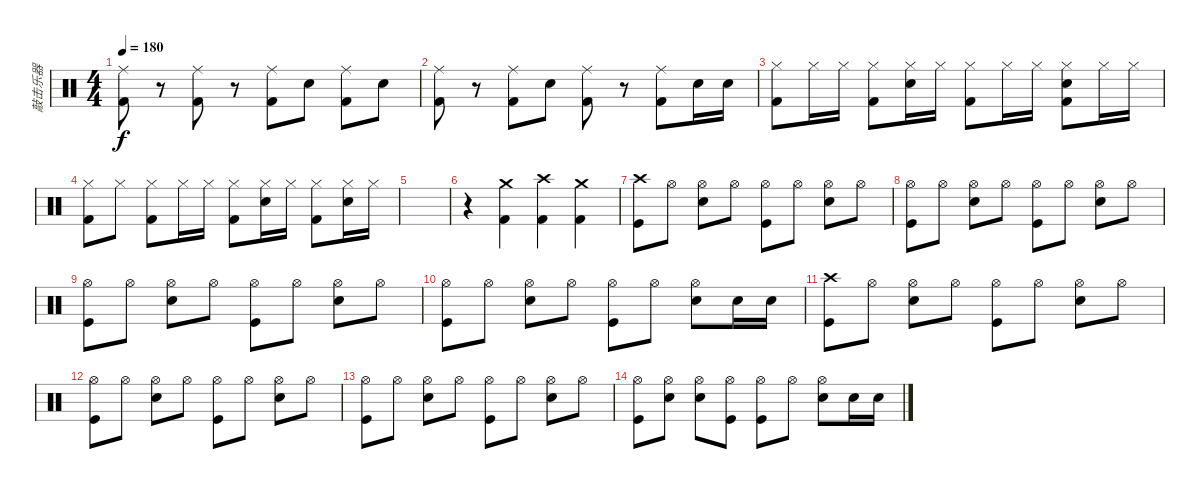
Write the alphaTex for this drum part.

\track ("敲击乐器" "敲击乐器") {instrument percussion}
\staff {score}
\articulation defaults
\ts (4 4)
\tempo 180
\clef neutral
\ks c
("Ride (middle)" "Kick (hit) 2").8{dy f} r.8 ("Ride (middle)" "Kick (hit) 2").8 r.8 ("Ride (middle)" "Kick (hit) 2").8 "Snare (hit) 2".8 ("Ride (middle)" "Kick (hit) 2").8 "Snare (hit) 2".8 |
("Ride (middle)" "Kick (hit) 2").8 r.8 ("Ride (middle)" "Kick (hit) 2").8 "Snare (hit) 2".8 ("Ride (middle)" "Kick (hit) 2").8 r.8 ("Ride (middle)" "Kick (hit) 2").8 "Snare (hit) 2".16 "Snare (hit) 2".16 |
("Hi-Hat (closed)" "Kick (hit) 2").8 "Hi-Hat (closed)".16 "Hi-Hat (closed)".16 ("Hi-Hat (closed)" "Kick (hit) 2").8 ("Hi-Hat (closed)" "Snare (hit) 2").16 "Hi-Hat (closed)".16 ("Hi-Hat (closed)" "Kick (hit) 2").8 "Hi-Hat (closed)".16 "Hi-Hat (closed)".16 ("Hi-Hat (closed)" "Snare (hit) 2" "Kick (hit) 2").8 "Hi-Hat (closed)".16 "Hi-Hat (closed)".16 |
("Hi-Hat (closed)" "Kick (hit) 2").8 "Hi-Hat (closed)".8 ("Hi-Hat (closed)" "Kick (hit) 2").8 "Hi-Hat (closed)".16 "Hi-Hat (closed)".16 ("Hi-Hat (closed)" "Kick (hit) 2").8 ("Hi-Hat (closed)" "Snare (hit) 2").16 "Hi-Hat (closed)".16 ("Hi-Hat (closed)" "Kick (hit) 2").8 ("Hi-Hat (closed)" "Snare (hit) 2").16 "Hi-Hat (closed)".16 |
|
r.4 ("Crash medium (hit)" "Kick (hit) 2").4 ("Crash high (hit)" "Kick (hit) 2").4 ("Crash medium (hit)" "Kick (hit) 2").4 |
("Crash high (hit)" "Kick (hit)").8 "Hi-Hat (open)".8 ("Hi-Hat (open)" "Snare (hit) 2").8 "Hi-Hat (open)".8 ("Hi-Hat (open)" "Kick (hit)").8 "Hi-Hat (open)".8 ("Hi-Hat (open)" "Snare (hit) 2").8 "Hi-Hat (open)".8 |
("Hi-Hat (open)" "Kick (hit)").8 "Hi-Hat (open)".8 ("Hi-Hat (open)" "Snare (hit) 2").8 "Hi-Hat (open)".8 ("Hi-Hat (open)" "Kick (hit)").8 "Hi-Hat (open)".8 ("Hi-Hat (open)" "Snare (hit) 2").8 "Hi-Hat (open)".8 |
("Hi-Hat (open)" "Kick (hit)").8 "Hi-Hat (open)".8 ("Hi-Hat (open)" "Snare (hit) 2").8 "Hi-Hat (open)".8 ("Hi-Hat (open)" "Kick (hit)").8 "Hi-Hat (open)".8 ("Hi-Hat (open)" "Snare (hit) 2").8 "Hi-Hat (open)".8 |
("Hi-Hat (open)" "Kick (hit)").8 "Hi-Hat (open)".8 ("Hi-Hat (open)" "Snare (hit) 2").8 "Hi-Hat (open)".8 ("Hi-Hat (open)" "Kick (hit)").8 "Hi-Hat (open)".8 ("Hi-Hat (open)" "Snare (hit) 2").8 "Snare (hit) 2".16 "Snare (hit) 2".16 |
("Crash high (hit)" "Kick (hit)").8 "Hi-Hat (open)".8 ("Hi-Hat (open)" "Snare (hit) 2").8 "Hi-Hat (open)".8 ("Hi-Hat (open)" "Kick (hit)").8 "Hi-Hat (open)".8 ("Hi-Hat (open)" "Snare (hit) 2").8 "Hi-Hat (open)".8 |
("Hi-Hat (open)" "Kick (hit)").8 "Hi-Hat (open)".8 ("Hi-Hat (open)" "Snare (hit) 2").8 "Hi-Hat (open)".8 ("Hi-Hat (open)" "Kick (hit)").8 "Hi-Hat (open)".8 ("Hi-Hat (open)" "Snare (hit) 2").8 "Hi-Hat (open)".8 |
("Hi-Hat (open)" "Kick (hit)").8 "Hi-Hat (open)".8 ("Hi-Hat (open)" "Snare (hit) 2").8 "Hi-Hat (open)".8 ("Hi-Hat (open)" "Kick (hit)").8 "Hi-Hat (open)".8 ("Hi-Hat (open)" "Snare (hit) 2").8 "Hi-Hat (open)".8 |
("Hi-Hat (open)" "Kick (hit)").8 ("Hi-Hat (open)" "Snare (hit) 2").8 ("Hi-Hat (open)" "Snare (hit) 2").8 ("Hi-Hat (open)" "Kick (hit)").8 ("Hi-Hat (open)" "Kick (hit)").8 "Hi-Hat (open)".8 ("Hi-Hat (open)" "Snare (hit) 2").8 "Snare (hit) 2".16 "Snare (hit) 2".16
